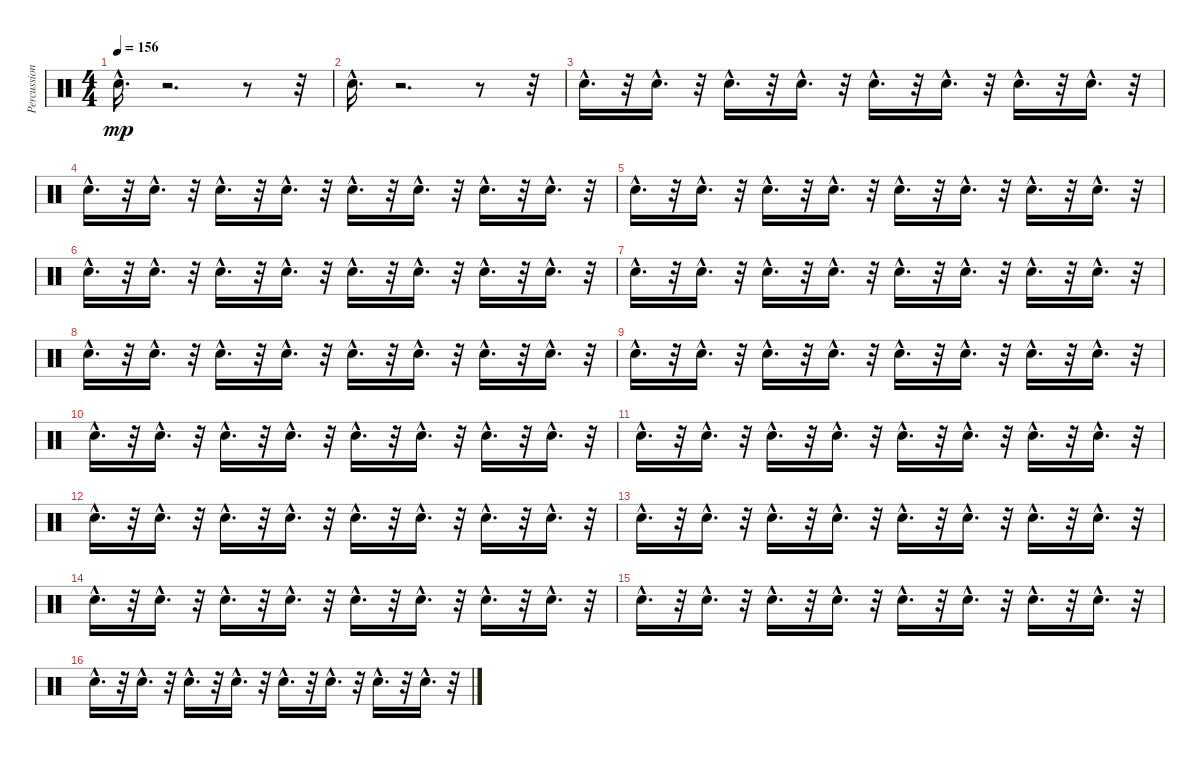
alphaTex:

\track ("Percussion" "Percussion") {instrument percussion}
\staff {score}
\articulation defaults
\ts (4 4)
\tempo 156
\clef neutral
\ks c "Snare (hit) 2"{hac}.16{d dy mp}
r.2{d} r.8 r.32 |
"Snare (hit) 2"{hac}.16{d} r.2{d} r.8 r.32 |
"Snare (hit) 2"{hac}.16{d} r.32 "Snare (hit) 2"{hac}.16{d} r.32 "Snare (hit) 2"{hac}.16{d} r.32 "Snare (hit) 2"{hac}.16{d} r.32 "Snare (hit) 2"{hac}.16{d} r.32 "Snare (hit) 2"{hac}.16{d} r.32 "Snare (hit) 2"{hac}.16{d} r.32 "Snare (hit) 2"{hac}.16{d} r.32 |
"Snare (hit) 2"{hac}.16{d} r.32 "Snare (hit) 2"{hac}.16{d} r.32 "Snare (hit) 2"{hac}.16{d} r.32 "Snare (hit) 2"{hac}.16{d} r.32 "Snare (hit) 2"{hac}.16{d} r.32 "Snare (hit) 2"{hac}.16{d} r.32 "Snare (hit) 2"{hac}.16{d} r.32 "Snare (hit) 2"{hac}.16{d} r.32 |
"Snare (hit) 2"{hac}.16{d} r.32 "Snare (hit) 2"{hac}.16{d} r.32 "Snare (hit) 2"{hac}.16{d} r.32 "Snare (hit) 2"{hac}.16{d} r.32 "Snare (hit) 2"{hac}.16{d} r.32 "Snare (hit) 2"{hac}.16{d} r.32 "Snare (hit) 2"{hac}.16{d} r.32 "Snare (hit) 2"{hac}.16{d} r.32 |
"Snare (hit) 2"{hac}.16{d} r.32 "Snare (hit) 2"{hac}.16{d} r.32 "Snare (hit) 2"{hac}.16{d} r.32 "Snare (hit) 2"{hac}.16{d} r.32 "Snare (hit) 2"{hac}.16{d} r.32 "Snare (hit) 2"{hac}.16{d} r.32 "Snare (hit) 2"{hac}.16{d} r.32 "Snare (hit) 2"{hac}.16{d} r.32 |
"Snare (hit) 2"{hac}.16{d} r.32 "Snare (hit) 2"{hac}.16{d} r.32 "Snare (hit) 2"{hac}.16{d} r.32 "Snare (hit) 2"{hac}.16{d} r.32 "Snare (hit) 2"{hac}.16{d} r.32 "Snare (hit) 2"{hac}.16{d} r.32 "Snare (hit) 2"{hac}.16{d} r.32 "Snare (hit) 2"{hac}.16{d} r.32 |
"Snare (hit) 2"{hac}.16{d} r.32 "Snare (hit) 2"{hac}.16{d} r.32 "Snare (hit) 2"{hac}.16{d} r.32 "Snare (hit) 2"{hac}.16{d} r.32 "Snare (hit) 2"{hac}.16{d} r.32 "Snare (hit) 2"{hac}.16{d} r.32 "Snare (hit) 2"{hac}.16{d} r.32 "Snare (hit) 2"{hac}.16{d} r.32 |
"Snare (hit) 2"{hac}.16{d} r.32 "Snare (hit) 2"{hac}.16{d} r.32 "Snare (hit) 2"{hac}.16{d} r.32 "Snare (hit) 2"{hac}.16{d} r.32 "Snare (hit) 2"{hac}.16{d} r.32 "Snare (hit) 2"{hac}.16{d} r.32 "Snare (hit) 2"{hac}.16{d} r.32 "Snare (hit) 2"{hac}.16{d} r.32 |
"Snare (hit) 2"{hac}.16{d} r.32 "Snare (hit) 2"{hac}.16{d} r.32 "Snare (hit) 2"{hac}.16{d} r.32 "Snare (hit) 2"{hac}.16{d} r.32 "Snare (hit) 2"{hac}.16{d} r.32 "Snare (hit) 2"{hac}.16{d} r.32 "Snare (hit) 2"{hac}.16{d} r.32 "Snare (hit) 2"{hac}.16{d} r.32 |
"Snare (hit) 2"{hac}.16{d} r.32 "Snare (hit) 2"{hac}.16{d} r.32 "Snare (hit) 2"{hac}.16{d} r.32 "Snare (hit) 2"{hac}.16{d} r.32 "Snare (hit) 2"{hac}.16{d} r.32 "Snare (hit) 2"{hac}.16{d} r.32 "Snare (hit) 2"{hac}.16{d} r.32 "Snare (hit) 2"{hac}.16{d} r.32 |
"Snare (hit) 2"{hac}.16{d} r.32 "Snare (hit) 2"{hac}.16{d} r.32 "Snare (hit) 2"{hac}.16{d} r.32 "Snare (hit) 2"{hac}.16{d} r.32 "Snare (hit) 2"{hac}.16{d} r.32 "Snare (hit) 2"{hac}.16{d} r.32 "Snare (hit) 2"{hac}.16{d} r.32 "Snare (hit) 2"{hac}.16{d} r.32 |
"Snare (hit) 2"{hac}.16{d} r.32 "Snare (hit) 2"{hac}.16{d} r.32 "Snare (hit) 2"{hac}.16{d} r.32 "Snare (hit) 2"{hac}.16{d} r.32 "Snare (hit) 2"{hac}.16{d} r.32 "Snare (hit) 2"{hac}.16{d} r.32 "Snare (hit) 2"{hac}.16{d} r.32 "Snare (hit) 2"{hac}.16{d} r.32 |
"Snare (hit) 2"{hac}.16{d} r.32 "Snare (hit) 2"{hac}.16{d} r.32 "Snare (hit) 2"{hac}.16{d} r.32 "Snare (hit) 2"{hac}.16{d} r.32 "Snare (hit) 2"{hac}.16{d} r.32 "Snare (hit) 2"{hac}.16{d} r.32 "Snare (hit) 2"{hac}.16{d} r.32 "Snare (hit) 2"{hac}.16{d} r.32 |
"Snare (hit) 2"{hac}.16{d} r.32 "Snare (hit) 2"{hac}.16{d} r.32 "Snare (hit) 2"{hac}.16{d} r.32 "Snare (hit) 2"{hac}.16{d} r.32 "Snare (hit) 2"{hac}.16{d} r.32 "Snare (hit) 2"{hac}.16{d} r.32 "Snare (hit) 2"{hac}.16{d} r.32 "Snare (hit) 2"{hac}.16{d} r.32 |
"Snare (hit) 2"{hac}.16{d} r.32 "Snare (hit) 2"{hac}.16{d} r.32 "Snare (hit) 2"{hac}.16{d} r.32 "Snare (hit) 2"{hac}.16{d} r.32 "Snare (hit) 2"{hac}.16{d} r.32 "Snare (hit) 2"{hac}.16{d} r.32 "Snare (hit) 2"{hac}.16{d} r.32 "Snare (hit) 2"{hac}.16{d} r.32
